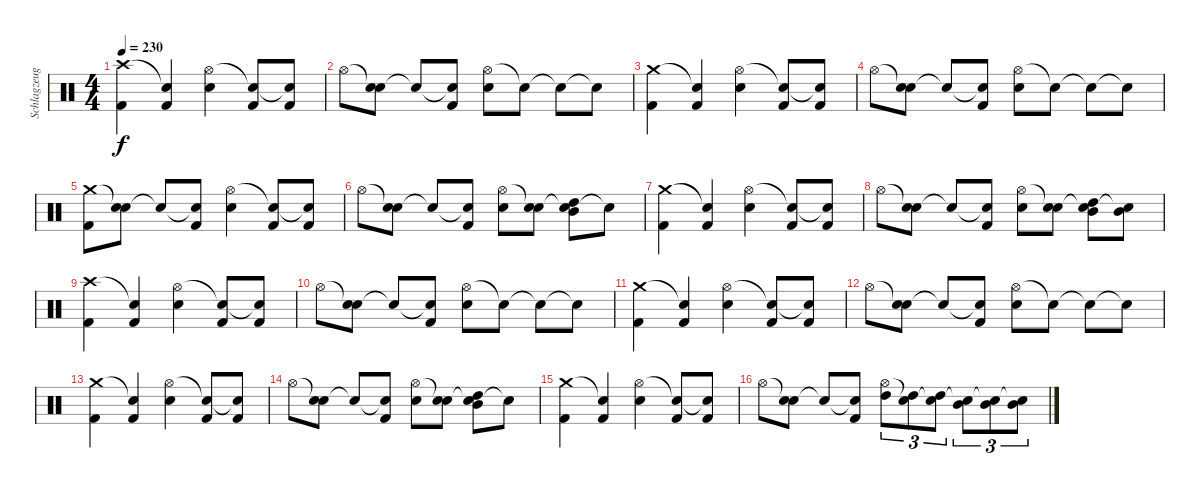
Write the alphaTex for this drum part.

\track ("Schlagzeug" "Schlagzeug") {instrument percussion}
\staff {score}
\articulation defaults
\ts (4 4)
\tempo 230
\clef neutral
\ks c
("Crash high (hit)" "Kick (hit) 2").4{dy f} ("Snare (hit)"{t} "Kick (hit) 2").4 ("Hi-Hat (open)" "Snare (hit) 2").4 ("Snare (hit)"{t} "Kick (hit) 2").8 ("Snare (hit)"{t} "Kick (hit) 2").8 |
"Hi-Hat (open)".8 ("Snare (hit)"{t} "Snare (hit) 2").8 "Snare (hit)"{t}.8 ("Snare (hit)"{t} "Kick (hit) 2").8 ("Hi-Hat (open)" "Snare (hit) 2").8 "Snare (hit)"{t}.8 "Snare (hit)"{t}.8 "Snare (hit)"{t}.8 |
("Crash medium (hit)" "Kick (hit) 2").4 ("Snare (hit)"{t} "Kick (hit) 2").4 ("Hi-Hat (open)" "Snare (hit) 2").4 ("Snare (hit)"{t} "Kick (hit) 2").8 ("Snare (hit)"{t} "Kick (hit) 2").8 |
"Hi-Hat (open)".8 ("Snare (hit)"{t} "Snare (hit) 2").8 "Snare (hit)"{t}.8 ("Snare (hit)"{t} "Kick (hit) 2").8 ("Hi-Hat (open)" "Snare (hit) 2").8 "Snare (hit)"{t}.8 "Snare (hit)"{t}.8 "Snare (hit)"{t}.8 |
("Crash medium (hit)" "Kick (hit) 2").8 ("Snare (hit)"{t} "Snare (hit) 2").8 "Snare (hit)"{t}.8 ("Snare (hit)"{t} "Kick (hit) 2").8 ("Hi-Hat (open)" "Snare (hit) 2").4 ("Snare (hit)"{t} "Kick (hit) 2").8 ("Snare (hit)"{t} "Kick (hit) 2").8 |
"Hi-Hat (open)".8 ("Snare (hit)"{t} "Snare (hit) 2").8 "Snare (hit)"{t}.8 ("Snare (hit)"{t} "Kick (hit) 2").8 ("Hi-Hat (open)" "Snare (hit) 2").8 ("Snare (hit)"{t} "Snare (hit) 2").8 ("Snare (hit)"{t} "Mid Tom (hit)" "High Tom (hit)").8 "Snare (hit)"{t}.8 |
("Crash medium (hit)" "Kick (hit) 2").4 ("Snare (hit)"{t} "Kick (hit) 2").4 ("Hi-Hat (open)" "Snare (hit) 2").4 ("Snare (hit)"{t} "Kick (hit) 2").8 ("Snare (hit)"{t} "Kick (hit) 2").8 |
"Hi-Hat (open)".8 ("Snare (hit)"{t} "Snare (hit) 2").8 "Snare (hit)"{t}.8 ("Snare (hit)"{t} "Kick (hit) 2").8 ("Hi-Hat (open)" "Snare (hit) 2").8 ("Snare (hit)"{t} "Snare (hit) 2").8 ("Snare (hit)"{t} "Mid Tom (hit)" "High Tom (hit)").8 ("Snare (hit)"{t} "Mid Tom (hit)").8 |
("Crash high (hit)" "Kick (hit) 2").4 ("Snare (hit)"{t} "Kick (hit) 2").4 ("Hi-Hat (open)" "Snare (hit) 2").4 ("Snare (hit)"{t} "Kick (hit) 2").8 ("Snare (hit)"{t} "Kick (hit) 2").8 |
"Hi-Hat (open)".8 ("Snare (hit)"{t} "Snare (hit) 2").8 "Snare (hit)"{t}.8 ("Snare (hit)"{t} "Kick (hit) 2").8 ("Hi-Hat (open)" "Snare (hit) 2").8 "Snare (hit)"{t}.8 "Snare (hit)"{t}.8 "Snare (hit)"{t}.8 |
("Crash medium (hit)" "Kick (hit) 2").4 ("Snare (hit)"{t} "Kick (hit) 2").4 ("Hi-Hat (open)" "Snare (hit) 2").4 ("Snare (hit)"{t} "Kick (hit) 2").8 ("Snare (hit)"{t} "Kick (hit) 2").8 |
"Hi-Hat (open)".8 ("Snare (hit)"{t} "Snare (hit) 2").8 "Snare (hit)"{t}.8 ("Snare (hit)"{t} "Kick (hit) 2").8 ("Hi-Hat (open)" "Snare (hit) 2").8 "Snare (hit)"{t}.8 "Snare (hit)"{t}.8 "Snare (hit)"{t}.8 |
("Crash medium (hit)" "Kick (hit) 2").4 ("Snare (hit)"{t} "Kick (hit) 2").4 ("Hi-Hat (open)" "Snare (hit) 2").4 ("Snare (hit)"{t} "Kick (hit) 2").8 ("Snare (hit)"{t} "Kick (hit) 2").8 |
"Hi-Hat (open)".8 ("Snare (hit)"{t} "Snare (hit) 2").8 "Snare (hit)"{t}.8 ("Snare (hit)"{t} "Kick (hit) 2").8 ("Hi-Hat (open)" "Snare (hit) 2").8 ("Snare (hit)"{t} "Snare (hit) 2").8 ("Snare (hit)"{t} "Mid Tom (hit)" "High Tom (hit)").8 "Snare (hit)"{t}.8 |
("Crash medium (hit)" "Kick (hit) 2").4 ("Snare (hit)"{t} "Kick (hit) 2").4 ("Hi-Hat (open)" "Snare (hit) 2").4 ("Snare (hit)"{t} "Kick (hit) 2").8 ("Snare (hit)"{t} "Kick (hit) 2").8 |
"Hi-Hat (open)".8 ("Snare (hit)"{t} "Snare (hit) 2").8 "Snare (hit)"{t}.8 ("Snare (hit)"{t} "Kick (hit) 2").8 ("Hi-Hat (open)" "High Tom (hit)").8{tu (3 2)} ("Snare (hit)"{t} "High Tom (hit)").8{tu (3 2)} ("Snare (hit)"{t} "High Tom (hit)").8{tu (3 2)} ("Snare (hit)"{t} "Mid Tom (hit)").8{tu (3 2)} ("Snare (hit)"{t} "Mid Tom (hit)").8{tu (3 2)} ("Snare (hit)"{t} "Mid Tom (hit)").8{tu (3 2)}
